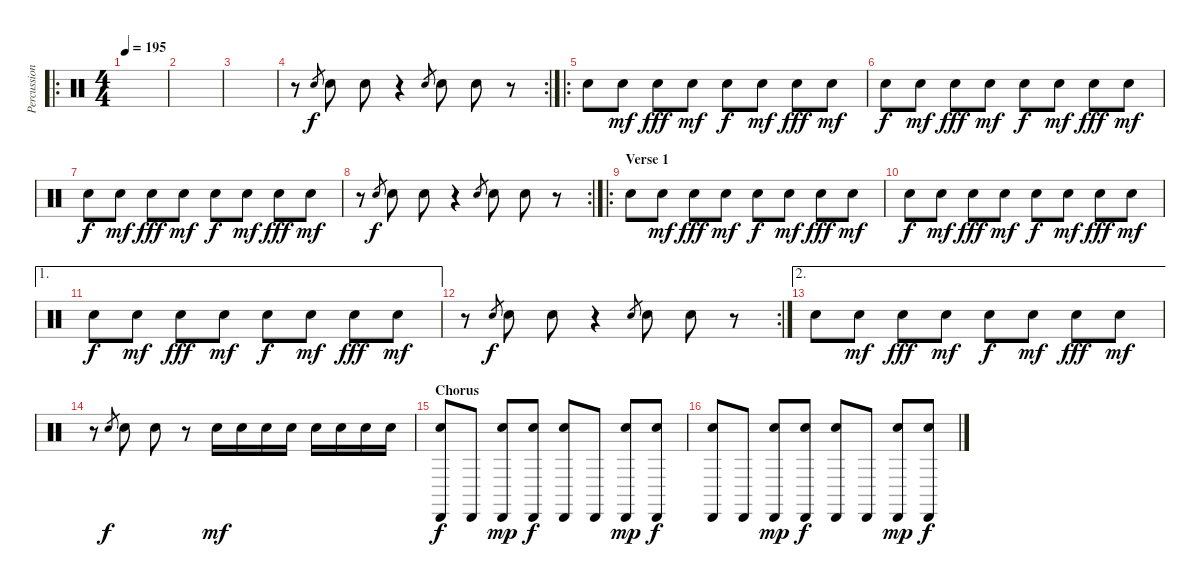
\track ("Percussion" "Percussion") {instrument percussion}
\staff {score}
\articulation defaults
\ro
\ts (4 4)
\tempo 195
\clef neutral
\ks c
|
|
|
\rc 2
r.8 "Snare (hit) 2".8{gr} "Snare (hit) 2".8 "Snare (hit) 2".8 r.4 "Snare (hit) 2".8{gr} "Snare (hit) 2".8 "Snare (hit) 2".8 r.8 |
\ro "Snare (hit) 2".8 "Snare (hit) 2".8{dy mf} "Snare (hit) 2".8{dy fff} "Snare (hit) 2".8{dy mf} "Snare (hit) 2".8{dy f} "Snare (hit) 2".8{dy mf} "Snare (hit) 2".8{dy fff} "Snare (hit) 2".8{dy mf}
|
"Snare (hit) 2".8{dy f} "Snare (hit) 2".8{dy mf} "Snare (hit) 2".8{dy fff} "Snare (hit) 2".8{dy mf} "Snare (hit) 2".8{dy f} "Snare (hit) 2".8{dy mf} "Snare (hit) 2".8{dy fff} "Snare (hit) 2".8{dy mf} |
"Snare (hit) 2".8{dy f} "Snare (hit) 2".8{dy mf} "Snare (hit) 2".8{dy fff} "Snare (hit) 2".8{dy mf} "Snare (hit) 2".8{dy f} "Snare (hit) 2".8{dy mf} "Snare (hit) 2".8{dy fff} "Snare (hit) 2".8{dy mf} |
\rc 2
r.8 "Snare (hit) 2".8{gr dy f} "Snare (hit) 2".8 "Snare (hit) 2".8 r.4 "Snare (hit) 2".8{gr} "Snare (hit) 2".8 "Snare (hit) 2".8 r.8 |
\ro
\section ("" "Verse 1")
"Snare (hit) 2".8 "Snare (hit) 2".8{dy mf} "Snare (hit) 2".8{dy fff} "Snare (hit) 2".8{dy mf} "Snare (hit) 2".8{dy f} "Snare (hit) 2".8{dy mf} "Snare (hit) 2".8{dy fff} "Snare (hit) 2".8{dy mf} |
"Snare (hit) 2".8{dy f} "Snare (hit) 2".8{dy mf} "Snare (hit) 2".8{dy fff} "Snare (hit) 2".8{dy mf} "Snare (hit) 2".8{dy f} "Snare (hit) 2".8{dy mf} "Snare (hit) 2".8{dy fff} "Snare (hit) 2".8{dy mf} |
\ae 1 "Snare (hit) 2".8{dy f} "Snare (hit) 2".8{dy mf} "Snare (hit) 2".8{dy fff} "Snare (hit) 2".8{dy mf} "Snare (hit) 2".8{dy f} "Snare (hit) 2".8{dy mf} "Snare (hit) 2".8{dy fff} "Snare (hit) 2".8{dy mf}
|
\rc 2
r.8 "Snare (hit) 2".8{gr dy f} "Snare (hit) 2".8 "Snare (hit) 2".8 r.4 "Snare (hit) 2".8{gr} "Snare (hit) 2".8 "Snare (hit) 2".8 r.8 |
\ae 2 "Snare (hit) 2".8 "Snare (hit) 2".8{dy mf} "Snare (hit) 2".8{dy fff} "Snare (hit) 2".8{dy mf} "Snare (hit) 2".8{dy f} "Snare (hit) 2".8{dy mf} "Snare (hit) 2".8{dy fff} "Snare (hit) 2".8{dy mf}
|
r.8 "Snare (hit) 2".8{gr dy f} "Snare (hit) 2".8 "Snare (hit) 2".8 r.8 "Snare (hit) 2".16{dy mf} "Snare (hit) 2".16 "Snare (hit) 2".16 "Snare (hit) 2".16 "Snare (hit) 2".16 "Snare (hit) 2".16 "Snare (hit) 2".16 "Snare (hit) 2".16 |
\section ("" "Chorus")
("Cabasa (hit)" "Snare (hit) 2").8{dy f} "Cabasa (hit)".8 ("Cabasa (hit)" "Snare (hit) 2").8{dy mp} ("Cabasa (hit)" "Snare (hit) 2").8{dy f} ("Cabasa (hit)" "Snare (hit) 2").8 "Cabasa (hit)".8 ("Cabasa (hit)" "Snare (hit) 2").8{dy mp} ("Cabasa (hit)" "Snare (hit) 2").8{dy f} |
("Cabasa (hit)" "Snare (hit) 2").8 "Cabasa (hit)".8 ("Cabasa (hit)" "Snare (hit) 2").8{dy mp} ("Cabasa (hit)" "Snare (hit) 2").8{dy f} ("Cabasa (hit)" "Snare (hit) 2").8 "Cabasa (hit)".8 ("Cabasa (hit)" "Snare (hit) 2").8{dy mp} ("Cabasa (hit)" "Snare (hit) 2").8{dy f}
